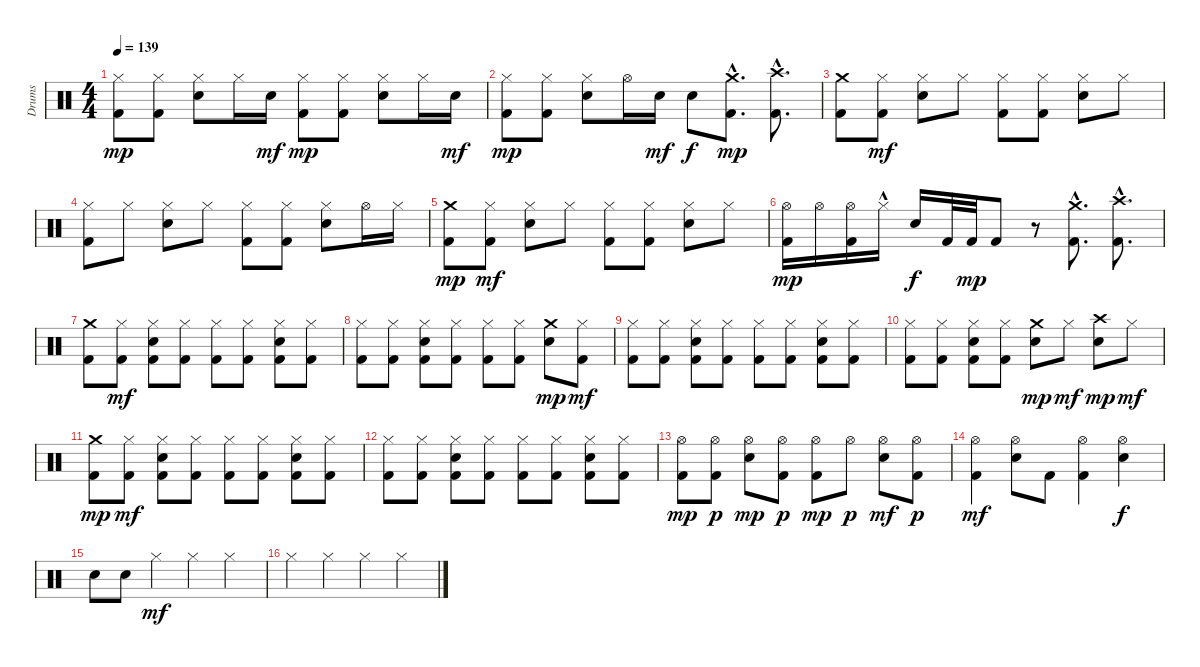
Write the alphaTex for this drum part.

\track ("Drums" "Drums") {instrument percussion}
\staff {score}
\articulation defaults
\ts (4 4)
\tempo 139
\clef neutral
\ks c
("Kick (hit) 2" "Hi-Hat (closed)").8{dy mp} ("Kick (hit) 2" "Hi-Hat (closed)").8 ("Hi-Hat (closed)" "Electric Snare (hit)").8 "Hi-Hat (closed)".16 "Electric Snare (hit)".16{dy mf} ("Kick (hit) 2" "Hi-Hat (closed)").8{dy mp} ("Kick (hit) 2" "Hi-Hat (closed)").8 ("Hi-Hat (closed)" "Electric Snare (hit)").8 "Hi-Hat (closed)".16 "Electric Snare (hit)".16{dy mf} |
("Kick (hit) 2" "Hi-Hat (closed)").8{dy mp} ("Kick (hit) 2" "Hi-Hat (closed)").8 ("Hi-Hat (closed)" "Electric Snare (hit)").8 "Hi-Hat (open)".16 "Electric Snare (hit)".16{dy mf} "Electric Snare (hit)".8{dy f} ("Kick (hit) 2"{hac} "Crash medium (hit)"{hac}).8{d dy mp} ("Kick (hit) 2"{hac} "Crash high (hit)"{hac}).8{d} |
("Kick (hit) 2" "Crash medium (hit)").8 ("Kick (hit) 2" "Hi-Hat (closed)").8{dy mf} ("Hi-Hat (closed)" "Electric Snare (hit)").8 "Hi-Hat (closed)".8 ("Kick (hit) 2" "Hi-Hat (closed)").8 ("Kick (hit) 2" "Hi-Hat (closed)").8 ("Hi-Hat (closed)" "Electric Snare (hit)").8 "Hi-Hat (closed)".8 |
("Kick (hit) 2" "Hi-Hat (closed)").8 "Hi-Hat (closed)".8 ("Hi-Hat (closed)" "Electric Snare (hit)").8 "Hi-Hat (closed)".8 ("Kick (hit) 2" "Hi-Hat (closed)").8 ("Kick (hit) 2" "Hi-Hat (closed)").8 ("Hi-Hat (closed)" "Electric Snare (hit)").8 "Hi-Hat (open)".16 "Hi-Hat (closed)".16 |
("Kick (hit) 2" "Crash medium (hit)").8{dy mp} ("Kick (hit) 2" "Hi-Hat (closed)").8{dy mf} ("Hi-Hat (closed)" "Electric Snare (hit)").8 "Hi-Hat (closed)".8 ("Kick (hit) 2" "Hi-Hat (closed)").8 ("Kick (hit) 2" "Hi-Hat (closed)").8 ("Hi-Hat (closed)" "Electric Snare (hit)").8 "Hi-Hat (closed)".8 |
("Kick (hit) 2" "Hi-Hat (open)").16{dy mp} "Hi-Hat (open)".16 ("Kick (hit) 2" "Hi-Hat (open)").16 "Hi-Hat (closed)"{hac}.16 "Electric Snare (hit)".16{dy f} "Kick (hit) 2".32 "Kick (hit) 2".32{dy mp} "Kick (hit) 2".8 r.8 ("Kick (hit) 2"{hac} "Crash medium (hit)"{hac}).8{d} ("Kick (hit) 2"{hac} "Crash high (hit)").8{d} |
("Kick (hit) 2" "Crash medium (hit)").8 ("Kick (hit) 2" "Hi-Hat (closed)").8{dy mf} ("Kick (hit) 2" "Hi-Hat (closed)" "Electric Snare (hit)").8 ("Kick (hit) 2" "Hi-Hat (closed)").8 ("Kick (hit) 2" "Hi-Hat (closed)").8 ("Kick (hit) 2" "Hi-Hat (closed)").8 ("Kick (hit) 2" "Hi-Hat (closed)" "Electric Snare (hit)").8 ("Kick (hit) 2" "Hi-Hat (closed)").8 |
("Kick (hit) 2" "Hi-Hat (closed)").8 ("Kick (hit) 2" "Hi-Hat (closed)").8 ("Kick (hit) 2" "Hi-Hat (closed)" "Electric Snare (hit)").8 ("Kick (hit) 2" "Hi-Hat (closed)").8 ("Kick (hit) 2" "Hi-Hat (closed)").8 ("Kick (hit) 2" "Hi-Hat (closed)").8 ("Crash medium (hit)" "Electric Snare (hit)").8{dy mp} ("Kick (hit) 2" "Hi-Hat (closed)").8{dy mf} |
("Kick (hit) 2" "Hi-Hat (closed)").8 ("Kick (hit) 2" "Hi-Hat (closed)").8 ("Kick (hit) 2" "Hi-Hat (closed)" "Electric Snare (hit)").8 ("Kick (hit) 2" "Hi-Hat (closed)").8 ("Kick (hit) 2" "Hi-Hat (closed)").8 ("Kick (hit) 2" "Hi-Hat (closed)").8 ("Electric Snare (hit)" "Kick (hit) 2" "Hi-Hat (closed)").8 ("Kick (hit) 2" "Hi-Hat (closed)").8 |
("Kick (hit) 2" "Hi-Hat (closed)").8 ("Kick (hit) 2" "Hi-Hat (closed)").8 ("Kick (hit) 2" "Hi-Hat (closed)" "Electric Snare (hit)").8 ("Kick (hit) 2" "Hi-Hat (closed)").8 ("Crash medium (hit)" "Electric Snare (hit)").8{dy mp} "Hi-Hat (closed)".8{dy mf} ("Crash high (hit)" "Electric Snare (hit)").8{dy mp} "Hi-Hat (closed)".8{dy mf} |
("Kick (hit) 2" "Crash medium (hit)").8{dy mp} ("Kick (hit) 2" "Hi-Hat (closed)").8{dy mf} ("Kick (hit) 2" "Hi-Hat (closed)" "Electric Snare (hit)").8 ("Kick (hit) 2" "Hi-Hat (closed)").8 ("Kick (hit) 2" "Hi-Hat (closed)").8 ("Kick (hit) 2" "Hi-Hat (closed)").8 ("Kick (hit) 2" "Hi-Hat (closed)" "Electric Snare (hit)").8 ("Kick (hit) 2" "Hi-Hat (closed)").8 |
("Kick (hit) 2" "Hi-Hat (closed)").8 ("Kick (hit) 2" "Hi-Hat (closed)").8 ("Kick (hit) 2" "Hi-Hat (closed)" "Electric Snare (hit)").8 ("Kick (hit) 2" "Hi-Hat (closed)").8 ("Kick (hit) 2" "Hi-Hat (closed)").8 ("Kick (hit) 2" "Hi-Hat (closed)").8 ("Kick (hit) 2" "Hi-Hat (closed)" "Electric Snare (hit)").8 ("Kick (hit) 2" "Hi-Hat (closed)").8 |
("Kick (hit) 2" "Hi-Hat (open)").8{dy mp} ("Kick (hit) 2" "Hi-Hat (open)").8{dy p} ("Hi-Hat (open)" "Electric Snare (hit)").8{dy mp} ("Kick (hit) 2" "Hi-Hat (open)").8{dy p} ("Kick (hit) 2" "Hi-Hat (open)").8{dy mp} "Hi-Hat (open)".8{dy p} ("Hi-Hat (open)" "Electric Snare (hit)").8{dy mf} ("Kick (hit) 2" "Hi-Hat (open)").8{dy p} |
("Kick (hit) 2" "Hi-Hat (open)").4{dy mf} ("Hi-Hat (open)" "Electric Snare (hit)").8 "Kick (hit) 2".8 ("Kick (hit) 2" "Hi-Hat (open)").4 ("Hi-Hat (open)" "Electric Snare (hit)").4{dy f} |
"Electric Snare (hit)".8 "Electric Snare (hit)".8 "Hi-Hat (closed)".4{dy mf} "Hi-Hat (closed)".4 "Hi-Hat (closed)".4 |
"Hi-Hat (closed)".4 "Hi-Hat (closed)".4 "Hi-Hat (closed)".4 "Hi-Hat (closed)".4
